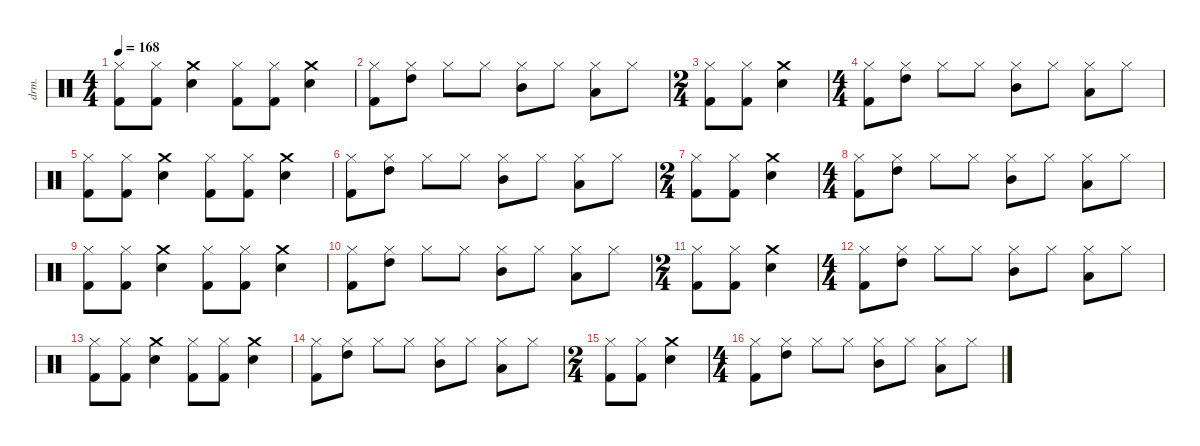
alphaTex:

\defaultSystemsLayout 4
\hideDynamics
\bracketExtendMode nobrackets
\otherSystemsTrackNameOrientation horizontal
\track ("Drums" "drm.") {instrument percussion}
\staff {score}
\articulation defaults
\ts (4 4)
\tempo 168
\clef neutral
\ks c
("Hi-Hat (closed)" "Kick (hit) 2").8{dy fff} ("Hi-Hat (closed)" "Kick (hit) 2").8 ("Snare (hit) 2" "Crash medium (hit)").4 ("Kick (hit) 2" "Hi-Hat (closed)").8 ("Kick (hit) 2" "Hi-Hat (closed)").8 ("Crash medium (hit)" "Snare (hit) 2").4 |
("Hi-Hat (closed)" "Kick (hit) 2").8 ("High Tom (hit)" "Hi-Hat (closed)").8 "Hi-Hat (closed)".8 "Hi-Hat (closed)".8 ("Mid Tom (hit)" "Hi-Hat (closed)").8 "Hi-Hat (closed)".8 ("Low Tom (hit)" "Hi-Hat (closed)").8 "Hi-Hat (closed)".8 |
\ts (2 4)
\beaming (8 2 2)
("Kick (hit) 2" "Hi-Hat (closed)").8 ("Kick (hit) 2" "Hi-Hat (closed)").8 ("Snare (hit) 2" "Crash medium (hit)").4 |
\ts (4 4)
\beaming (8 2 2 2 2)
("Hi-Hat (closed)" "Kick (hit) 2").8 ("High Tom (hit)" "Hi-Hat (closed)").8 "Hi-Hat (closed)".8 "Hi-Hat (closed)".8 ("Mid Tom (hit)" "Hi-Hat (closed)").8 "Hi-Hat (closed)".8 ("Hi-Hat (closed)" "Low Tom (hit)").8 "Hi-Hat (closed)".8 |
("Hi-Hat (closed)" "Kick (hit) 2").8 ("Hi-Hat (closed)" "Kick (hit) 2").8 ("Snare (hit) 2" "Crash medium (hit)").4 ("Kick (hit) 2" "Hi-Hat (closed)").8 ("Kick (hit) 2" "Hi-Hat (closed)").8 ("Crash medium (hit)" "Snare (hit) 2").4 |
("Hi-Hat (closed)" "Kick (hit) 2").8 ("High Tom (hit)" "Hi-Hat (closed)").8 "Hi-Hat (closed)".8 "Hi-Hat (closed)".8 ("Mid Tom (hit)" "Hi-Hat (closed)").8 "Hi-Hat (closed)".8 ("Low Tom (hit)" "Hi-Hat (closed)").8 "Hi-Hat (closed)".8 |
\ts (2 4)
\beaming (8 2 2)
("Kick (hit) 2" "Hi-Hat (closed)").8 ("Kick (hit) 2" "Hi-Hat (closed)").8 ("Snare (hit) 2" "Crash medium (hit)").4 |
\ts (4 4)
\beaming (8 2 2 2 2)
("Hi-Hat (closed)" "Kick (hit) 2").8 ("High Tom (hit)" "Hi-Hat (closed)").8 "Hi-Hat (closed)".8 "Hi-Hat (closed)".8 ("Mid Tom (hit)" "Hi-Hat (closed)").8 "Hi-Hat (closed)".8 ("Hi-Hat (closed)" "Low Tom (hit)").8 "Hi-Hat (closed)".8 |
("Hi-Hat (closed)" "Kick (hit) 2").8 ("Hi-Hat (closed)" "Kick (hit) 2").8 ("Snare (hit) 2" "Crash medium (hit)").4 ("Kick (hit) 2" "Hi-Hat (closed)").8 ("Kick (hit) 2" "Hi-Hat (closed)").8 ("Crash medium (hit)" "Snare (hit) 2").4 |
("Hi-Hat (closed)" "Kick (hit) 2").8 ("High Tom (hit)" "Hi-Hat (closed)").8 "Hi-Hat (closed)".8 "Hi-Hat (closed)".8 ("Mid Tom (hit)" "Hi-Hat (closed)").8 "Hi-Hat (closed)".8 ("Low Tom (hit)" "Hi-Hat (closed)").8 "Hi-Hat (closed)".8 |
\ts (2 4)
\beaming (8 2 2)
("Kick (hit) 2" "Hi-Hat (closed)").8 ("Kick (hit) 2" "Hi-Hat (closed)").8 ("Snare (hit) 2" "Crash medium (hit)").4 |
\ts (4 4)
\beaming (8 2 2 2 2)
("Hi-Hat (closed)" "Kick (hit) 2").8 ("High Tom (hit)" "Hi-Hat (closed)").8 "Hi-Hat (closed)".8 "Hi-Hat (closed)".8 ("Mid Tom (hit)" "Hi-Hat (closed)").8 "Hi-Hat (closed)".8 ("Hi-Hat (closed)" "Low Tom (hit)").8 "Hi-Hat (closed)".8 |
("Hi-Hat (closed)" "Kick (hit) 2").8 ("Hi-Hat (closed)" "Kick (hit) 2").8 ("Snare (hit) 2" "Crash medium (hit)").4 ("Kick (hit) 2" "Hi-Hat (closed)").8 ("Kick (hit) 2" "Hi-Hat (closed)").8 ("Crash medium (hit)" "Snare (hit) 2").4 |
("Hi-Hat (closed)" "Kick (hit) 2").8 ("High Tom (hit)" "Hi-Hat (closed)").8 "Hi-Hat (closed)".8 "Hi-Hat (closed)".8 ("Mid Tom (hit)" "Hi-Hat (closed)").8 "Hi-Hat (closed)".8 ("Low Tom (hit)" "Hi-Hat (closed)").8 "Hi-Hat (closed)".8 |
\ts (2 4)
\beaming (8 2 2)
("Kick (hit) 2" "Hi-Hat (closed)").8 ("Kick (hit) 2" "Hi-Hat (closed)").8 ("Snare (hit) 2" "Crash medium (hit)").4 |
\ts (4 4)
\beaming (8 2 2 2 2)
("Hi-Hat (closed)" "Kick (hit) 2").8 ("High Tom (hit)" "Hi-Hat (closed)").8 "Hi-Hat (closed)".8 "Hi-Hat (closed)".8 ("Mid Tom (hit)" "Hi-Hat (closed)").8 "Hi-Hat (closed)".8 ("Hi-Hat (closed)" "Low Tom (hit)").8 "Hi-Hat (closed)".8
